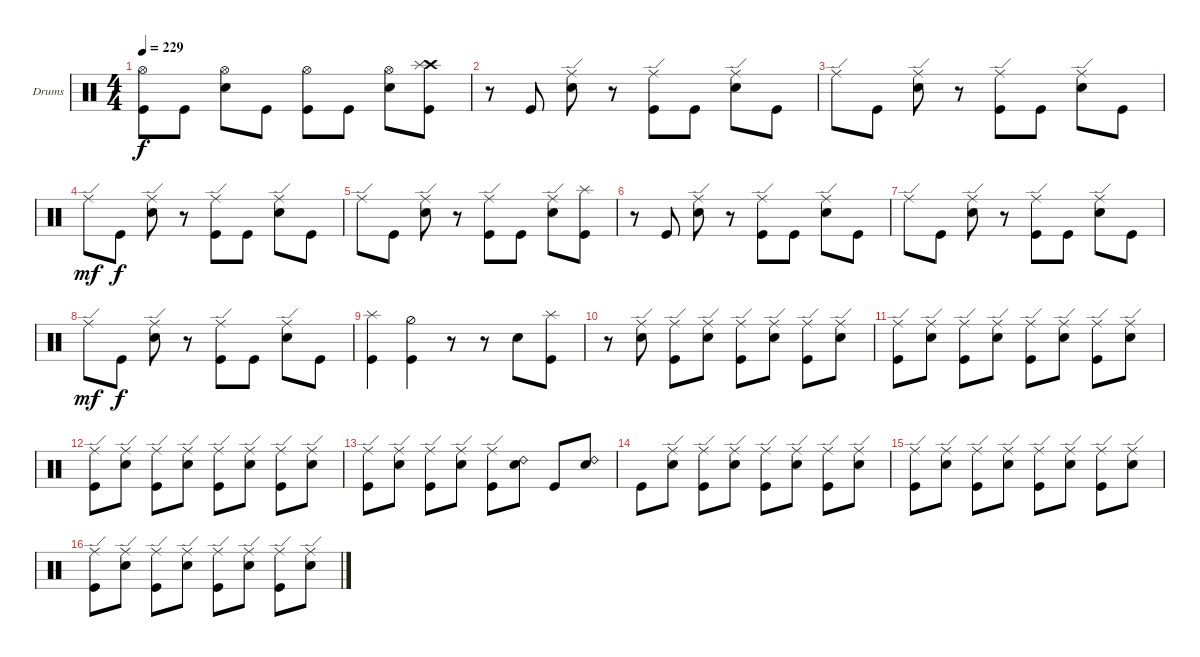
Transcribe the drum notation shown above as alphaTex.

\defaultSystemsLayout 4
\bracketExtendMode groupsimilarinstruments
\firstSystemTrackNameOrientation horizontal
\otherSystemsTrackNameOrientation horizontal
\track ("Drumkit" "Drums") {instrument percussion}
\staff {score}
\articulation defaults
\ts (4 4)
\tempo 229
\clef neutral
\ks c
("Kick (hit)" "Hi-Hat (open)").8{dy f} "Kick (hit)".8 ("Snare (hit) 2" "Hi-Hat (open)").8 "Kick (hit)".8 ("Kick (hit)" "Hi-Hat (open)").8 "Kick (hit)".8 ("Snare (hit) 2" "Hi-Hat (open)").8 ("Kick (hit)" "Crash high (hit)" "Splash (hit)").8 |
r.8 "Kick (hit)".8 ("Snare (hit) 2" "Ride (edge)").8 r.8 ("Kick (hit)" "Ride (edge)").8 "Kick (hit)".8 ("Snare (hit) 2" "Ride (edge)").8 "Kick (hit)".8 |
"Ride (edge)".8 "Kick (hit)".8 ("Snare (hit) 2" "Ride (edge)").8 r.8 ("Kick (hit)" "Ride (edge)").8 "Kick (hit)".8 ("Snare (hit) 2" "Ride (edge)").8 "Kick (hit)".8 |
"Ride (edge)".8{dy mf} "Kick (hit)".8{dy f} ("Snare (hit) 2" "Ride (edge)").8 r.8 ("Kick (hit)" "Ride (edge)").8 "Kick (hit)".8 ("Snare (hit) 2" "Ride (edge)").8 "Kick (hit)".8 |
"Ride (edge)".8 "Kick (hit)".8 ("Snare (hit) 2" "Ride (edge)").8 r.8 ("Kick (hit)" "Ride (edge)").8 "Kick (hit)".8 ("Snare (hit) 2" "Ride (edge)").8 ("Kick (hit)" "Splash (hit)").8 |
r.8 "Kick (hit)".8 ("Snare (hit) 2" "Ride (edge)").8 r.8 ("Kick (hit)" "Ride (edge)").8 "Kick (hit)".8 ("Snare (hit) 2" "Ride (edge)").8 "Kick (hit)".8 |
"Ride (edge)".8 "Kick (hit)".8 ("Snare (hit) 2" "Ride (edge)").8 r.8 ("Kick (hit)" "Ride (edge)").8 "Kick (hit)".8 ("Snare (hit) 2" "Ride (edge)").8 "Kick (hit)".8 |
"Ride (edge)".8{dy mf} "Kick (hit)".8{dy f} ("Snare (hit) 2" "Ride (edge)").8 r.8 ("Kick (hit)" "Ride (edge)").8 "Kick (hit)".8 ("Snare (hit) 2" "Ride (edge)").8 "Kick (hit)".8 |
("Kick (hit)" "Splash (hit)").4 ("Kick (hit)" "Hi-Hat (half)").4 r.8 r.8 "Snare (hit) 2".8 ("Kick (hit)" "Splash (hit)").8 |
r.8 ("Snare (hit) 2" "Ride (edge)").8 ("Kick (hit)" "Ride (edge)").8 ("Snare (hit) 2" "Ride (edge)").8 ("Kick (hit)" "Ride (edge)").8 ("Snare (hit) 2" "Ride (edge)").8 ("Kick (hit)" "Ride (edge)").8 ("Ride (edge)" "Snare (hit) 2").8 |
("Kick (hit)" "Ride (edge)").8 ("Snare (hit) 2" "Ride (edge)").8 ("Kick (hit)" "Ride (edge)").8 ("Ride (edge)" "Snare (hit) 2").8 ("Kick (hit)" "Ride (edge)").8 ("Snare (hit) 2" "Ride (edge)").8 ("Kick (hit)" "Ride (edge)").8 ("Ride (edge)" "Snare (hit) 2").8 |
("Kick (hit)" "Ride (edge)").8 ("Snare (hit) 2" "Ride (edge)").8 ("Kick (hit)" "Ride (edge)").8 ("Ride (edge)" "Snare (hit) 2").8 ("Kick (hit)" "Ride (edge)").8 ("Snare (hit) 2" "Ride (edge)").8 ("Kick (hit)" "Ride (edge)").8 ("Ride (edge)" "Snare (hit) 2").8 |
("Kick (hit)" "Ride (edge)").8 ("Snare (hit) 2" "Ride (edge)").8 ("Kick (hit)" "Ride (edge)").8 ("Ride (edge)" "Snare (hit) 2").8 ("Kick (hit)" "Ride (edge)").8 ("Snare (hit) 2" "Ride (bell) 2").8 "Kick (hit)".8 ("Snare (hit) 2" "Ride (bell) 2").8 |
"Kick (hit)".8 ("Snare (hit) 2" "Ride (edge)").8 ("Kick (hit)" "Ride (edge)").8 ("Snare (hit) 2" "Ride (edge)").8 ("Kick (hit)" "Ride (edge)").8 ("Snare (hit) 2" "Ride (edge)").8 ("Kick (hit)" "Ride (edge)").8 ("Ride (edge)" "Snare (hit) 2").8 |
("Kick (hit)" "Ride (edge)").8 ("Snare (hit) 2" "Ride (edge)").8 ("Kick (hit)" "Ride (edge)").8 ("Ride (edge)" "Snare (hit) 2").8 ("Kick (hit)" "Ride (edge)").8 ("Snare (hit) 2" "Ride (edge)").8 ("Kick (hit)" "Ride (edge)").8 ("Ride (edge)" "Snare (hit) 2").8 |
("Kick (hit)" "Ride (edge)").8 ("Snare (hit) 2" "Ride (edge)").8 ("Kick (hit)" "Ride (edge)").8 ("Ride (edge)" "Snare (hit) 2").8 ("Kick (hit)" "Ride (edge)").8 ("Snare (hit) 2" "Ride (edge)").8 ("Kick (hit)" "Ride (edge)").8 ("Ride (edge)" "Snare (hit) 2").8
